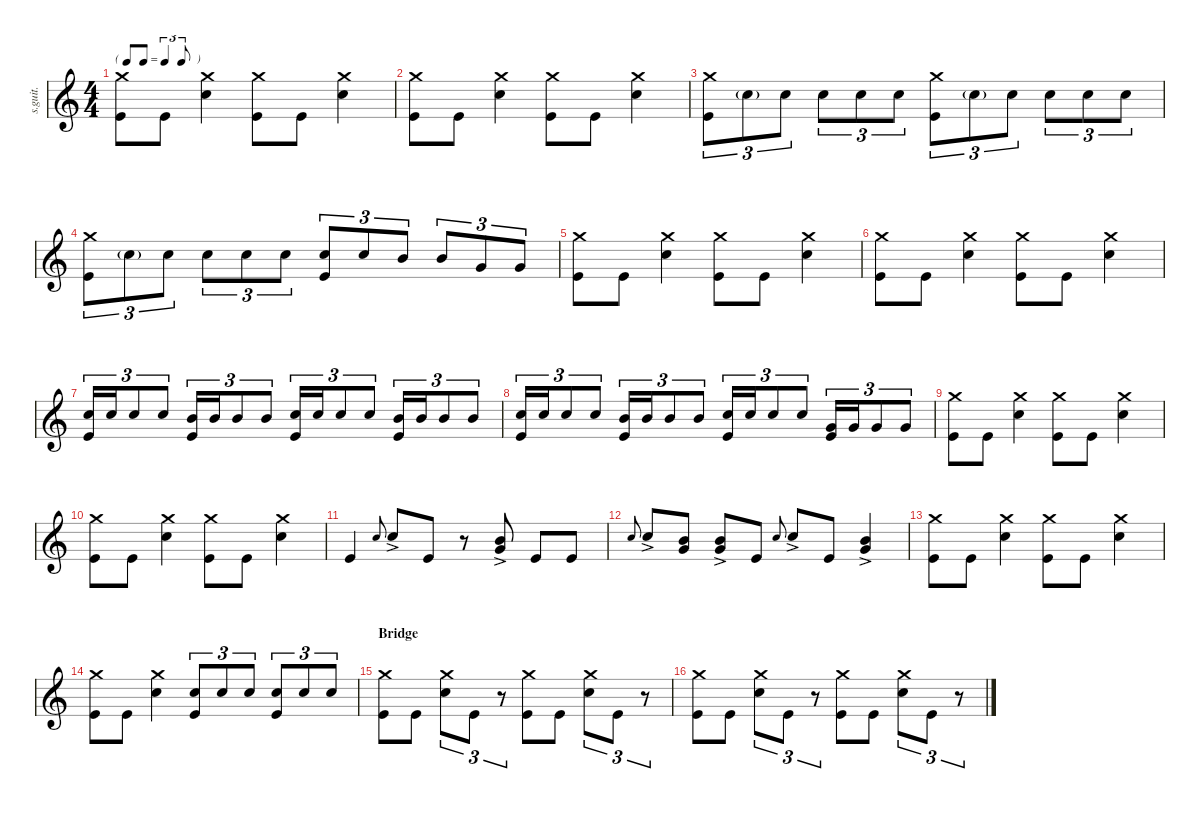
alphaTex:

\defaultSystemsLayout 4
\hideDynamics
\bracketExtendMode nobrackets
\track ("Dave Grohl" "s.guit.") {instrument percussion}
\staff {score}
\articulation defaults
\ts (4 4)
\tf triplet8th
\tempo (171 hide)
\clef g2
\ks c
("Kick (hit)" "Crash medium (hit)").8{lyrics (0 "") lyrics (1 "") lyrics (2 "") lyrics (3 "") lyrics (4 "") dy mf} "Kick (hit)".8{lyrics (0 "") lyrics (1 "") lyrics (2 "") lyrics (3 "") lyrics (4 "")} ("Crash medium (hit)" "Snare (hit) 2").4{lyrics (0 "") lyrics (1 "") lyrics (2 "") lyrics (3 "") lyrics (4 "")} ("Kick (hit)" "Crash medium (hit)").8{lyrics (0 "") lyrics (1 "") lyrics (2 "") lyrics (3 "") lyrics (4 "")} "Kick (hit)".8{lyrics (0 "") lyrics (1 "") lyrics (2 "") lyrics (3 "") lyrics (4 "")} ("Crash medium (hit)" "Snare (hit) 2").4{lyrics (0 "") lyrics (1 "") lyrics (2 "") lyrics (3 "") lyrics (4 "")} |
("Kick (hit)" "Crash medium (hit)").8{lyrics (0 "") lyrics (1 "") lyrics (2 "") lyrics (3 "") lyrics (4 "")} "Kick (hit)".8{lyrics (0 "") lyrics (1 "") lyrics (2 "") lyrics (3 "") lyrics (4 "")} ("Crash medium (hit)" "Snare (hit) 2").4{lyrics (0 "") lyrics (1 "") lyrics (2 "") lyrics (3 "") lyrics (4 "")} ("Kick (hit)" "Crash medium (hit)").8{lyrics (0 "") lyrics (1 "") lyrics (2 "") lyrics (3 "") lyrics (4 "")} "Kick (hit)".8{lyrics (0 "") lyrics (1 "") lyrics (2 "") lyrics (3 "") lyrics (4 "")} ("Crash medium (hit)" "Snare (hit) 2").4{lyrics (0 "") lyrics (1 "") lyrics (2 "") lyrics (3 "") lyrics (4 "")} |
("Kick (hit)" "Crash medium (hit)").8{tu (3 2) lyrics (0 "") lyrics (1 "") lyrics (2 "") lyrics (3 "") lyrics (4 "")} "Snare (hit) 2"{g}.8{tu (3 2) lyrics (0 "") lyrics (1 "") lyrics (2 "") lyrics (3 "") lyrics (4 "") dy fff} "Snare (hit) 2".8{tu (3 2) lyrics (0 "") lyrics (1 "") lyrics (2 "") lyrics (3 "") lyrics (4 "") dy mf} "Snare (hit) 2".8{tu (3 2) lyrics (0 "") lyrics (1 "") lyrics (2 "") lyrics (3 "") lyrics (4 "")} "Snare (hit) 2".8{tu (3 2) lyrics (0 "") lyrics (1 "") lyrics (2 "") lyrics (3 "") lyrics (4 "")} "Snare (hit) 2".8{tu (3 2) lyrics (0 "") lyrics (1 "") lyrics (2 "") lyrics (3 "") lyrics (4 "")} ("Kick (hit)" "Crash medium (hit)").8{tu (3 2) lyrics (0 "") lyrics (1 "") lyrics (2 "") lyrics (3 "") lyrics (4 "")} "Snare (hit) 2"{g}.8{tu (3 2) lyrics (0 "") lyrics (1 "") lyrics (2 "") lyrics (3 "") lyrics (4 "") dy fff} "Snare (hit) 2".8{tu (3 2) lyrics (0 "") lyrics (1 "") lyrics (2 "") lyrics (3 "") lyrics (4 "") dy mf} "Snare (hit) 2".8{tu (3 2) lyrics (0 "") lyrics (1 "") lyrics (2 "") lyrics (3 "") lyrics (4 "")} "Snare (hit) 2".8{tu (3 2) lyrics (0 "") lyrics (1 "") lyrics (2 "") lyrics (3 "") lyrics (4 "")} "Snare (hit) 2".8{tu (3 2) lyrics (0 "") lyrics (1 "") lyrics (2 "") lyrics (3 "") lyrics (4 "")} |
("Kick (hit)" "Crash medium (hit)").8{tu (3 2) lyrics (0 "") lyrics (1 "") lyrics (2 "") lyrics (3 "") lyrics (4 "")} "Snare (hit) 2"{g}.8{tu (3 2) lyrics (0 "") lyrics (1 "") lyrics (2 "") lyrics (3 "") lyrics (4 "") dy fff} "Snare (hit) 2".8{tu (3 2) lyrics (0 "") lyrics (1 "") lyrics (2 "") lyrics (3 "") lyrics (4 "") dy mf} "Snare (hit) 2".8{tu (3 2) lyrics (0 "") lyrics (1 "") lyrics (2 "") lyrics (3 "") lyrics (4 "")} "Snare (hit) 2".8{tu (3 2) lyrics (0 "") lyrics (1 "") lyrics (2 "") lyrics (3 "") lyrics (4 "")} "Snare (hit) 2".8{tu (3 2) lyrics (0 "") lyrics (1 "") lyrics (2 "") lyrics (3 "") lyrics (4 "")} ("Kick (hit)" "Snare (hit) 2").8{tu (3 2) lyrics (0 "") lyrics (1 "") lyrics (2 "") lyrics (3 "") lyrics (4 "")} "Snare (hit) 2".8{tu (3 2) lyrics (0 "") lyrics (1 "") lyrics (2 "") lyrics (3 "") lyrics (4 "")} "Mid Tom (hit)".8{tu (3 2) lyrics (0 "") lyrics (1 "") lyrics (2 "") lyrics (3 "") lyrics (4 "")} "Mid Tom (hit)".8{tu (3 2) lyrics (0 "") lyrics (1 "") lyrics (2 "") lyrics (3 "") lyrics (4 "")} "Very Low Tom (hit)".8{tu (3 2) lyrics (0 "") lyrics (1 "") lyrics (2 "") lyrics (3 "") lyrics (4 "")} "Very Low Tom (hit)".8{tu (3 2) lyrics (0 "") lyrics (1 "") lyrics (2 "") lyrics (3 "") lyrics (4 "")} |
("Kick (hit)" "Crash medium (hit)").8{lyrics (0 "") lyrics (1 "") lyrics (2 "") lyrics (3 "") lyrics (4 "")} "Kick (hit)".8{lyrics (0 "") lyrics (1 "") lyrics (2 "") lyrics (3 "") lyrics (4 "")} ("Crash medium (hit)" "Snare (hit) 2").4{lyrics (0 "") lyrics (1 "") lyrics (2 "") lyrics (3 "") lyrics (4 "")} ("Kick (hit)" "Crash medium (hit)").8{lyrics (0 "") lyrics (1 "") lyrics (2 "") lyrics (3 "") lyrics (4 "")} "Kick (hit)".8{lyrics (0 "") lyrics (1 "") lyrics (2 "") lyrics (3 "") lyrics (4 "")} ("Crash medium (hit)" "Snare (hit) 2").4{lyrics (0 "") lyrics (1 "") lyrics (2 "") lyrics (3 "") lyrics (4 "")} |
("Kick (hit)" "Crash medium (hit)").8{lyrics (0 "") lyrics (1 "") lyrics (2 "") lyrics (3 "") lyrics (4 "")} "Kick (hit)".8{lyrics (0 "") lyrics (1 "") lyrics (2 "") lyrics (3 "") lyrics (4 "")} ("Crash medium (hit)" "Snare (hit) 2").4{lyrics (0 "") lyrics (1 "") lyrics (2 "") lyrics (3 "") lyrics (4 "")} ("Kick (hit)" "Crash medium (hit)").8{lyrics (0 "") lyrics (1 "") lyrics (2 "") lyrics (3 "") lyrics (4 "")} "Kick (hit)".8{lyrics (0 "") lyrics (1 "") lyrics (2 "") lyrics (3 "") lyrics (4 "")} ("Crash medium (hit)" "Snare (hit) 2").4{lyrics (0 "") lyrics (1 "") lyrics (2 "") lyrics (3 "") lyrics (4 "")} |
("Snare (hit) 2" "Kick (hit)").16{tu (3 2) lyrics (0 "") lyrics (1 "") lyrics (2 "") lyrics (3 "") lyrics (4 "")} "Snare (hit) 2".16{tu (3 2) lyrics (0 "") lyrics (1 "") lyrics (2 "") lyrics (3 "") lyrics (4 "")} "Snare (hit) 2".8{tu (3 2) lyrics (0 "") lyrics (1 "") lyrics (2 "") lyrics (3 "") lyrics (4 "")} "Snare (hit) 2".8{tu (3 2) lyrics (0 "") lyrics (1 "") lyrics (2 "") lyrics (3 "") lyrics (4 "")} ("Mid Tom (hit)" "Kick (hit)").16{tu (3 2) lyrics (0 "") lyrics (1 "") lyrics (2 "") lyrics (3 "") lyrics (4 "")} "Mid Tom (hit)".16{tu (3 2) lyrics (0 "") lyrics (1 "") lyrics (2 "") lyrics (3 "") lyrics (4 "")} "Mid Tom (hit)".8{tu (3 2) lyrics (0 "") lyrics (1 "") lyrics (2 "") lyrics (3 "") lyrics (4 "")} "Mid Tom (hit)".8{tu (3 2) lyrics (0 "") lyrics (1 "") lyrics (2 "") lyrics (3 "") lyrics (4 "")} ("Snare (hit) 2" "Kick (hit)").16{tu (3 2) lyrics (0 "") lyrics (1 "") lyrics (2 "") lyrics (3 "") lyrics (4 "")} "Snare (hit) 2".16{tu (3 2) lyrics (0 "") lyrics (1 "") lyrics (2 "") lyrics (3 "") lyrics (4 "")} "Snare (hit) 2".8{tu (3 2) lyrics (0 "") lyrics (1 "") lyrics (2 "") lyrics (3 "") lyrics (4 "")} "Snare (hit) 2".8{tu (3 2) lyrics (0 "") lyrics (1 "") lyrics (2 "") lyrics (3 "") lyrics (4 "")} ("Mid Tom (hit)" "Kick (hit)").16{tu (3 2) lyrics (0 "") lyrics (1 "") lyrics (2 "") lyrics (3 "") lyrics (4 "")} "Mid Tom (hit)".16{tu (3 2) lyrics (0 "") lyrics (1 "") lyrics (2 "") lyrics (3 "") lyrics (4 "")} "Mid Tom (hit)".8{tu (3 2) lyrics (0 "") lyrics (1 "") lyrics (2 "") lyrics (3 "") lyrics (4 "")} "Mid Tom (hit)".8{tu (3 2) lyrics (0 "") lyrics (1 "") lyrics (2 "") lyrics (3 "") lyrics (4 "")} |
("Snare (hit) 2" "Kick (hit)").16{tu (3 2) lyrics (0 "") lyrics (1 "") lyrics (2 "") lyrics (3 "") lyrics (4 "")} "Snare (hit) 2".16{tu (3 2) lyrics (0 "") lyrics (1 "") lyrics (2 "") lyrics (3 "") lyrics (4 "")} "Snare (hit) 2".8{tu (3 2) lyrics (0 "") lyrics (1 "") lyrics (2 "") lyrics (3 "") lyrics (4 "")} "Snare (hit) 2".8{tu (3 2) lyrics (0 "") lyrics (1 "") lyrics (2 "") lyrics (3 "") lyrics (4 "")} ("Mid Tom (hit)" "Kick (hit)").16{tu (3 2) lyrics (0 "") lyrics (1 "") lyrics (2 "") lyrics (3 "") lyrics (4 "")} "Mid Tom (hit)".16{tu (3 2) lyrics (0 "") lyrics (1 "") lyrics (2 "") lyrics (3 "") lyrics (4 "")} "Mid Tom (hit)".8{tu (3 2) lyrics (0 "") lyrics (1 "") lyrics (2 "") lyrics (3 "") lyrics (4 "")} "Mid Tom (hit)".8{tu (3 2) lyrics (0 "") lyrics (1 "") lyrics (2 "") lyrics (3 "") lyrics (4 "")} ("Snare (hit) 2" "Kick (hit)").16{tu (3 2) lyrics (0 "") lyrics (1 "") lyrics (2 "") lyrics (3 "") lyrics (4 "")} "Snare (hit) 2".16{tu (3 2) lyrics (0 "") lyrics (1 "") lyrics (2 "") lyrics (3 "") lyrics (4 "")} "Snare (hit) 2".8{tu (3 2) lyrics (0 "") lyrics (1 "") lyrics (2 "") lyrics (3 "") lyrics (4 "")} "Snare (hit) 2".8{tu (3 2) lyrics (0 "") lyrics (1 "") lyrics (2 "") lyrics (3 "") lyrics (4 "")} ("Kick (hit)" "Very Low Tom (hit)").16{tu (3 2) lyrics (0 "") lyrics (1 "") lyrics (2 "") lyrics (3 "") lyrics (4 "")} "Very Low Tom (hit)".16{tu (3 2) lyrics (0 "") lyrics (1 "") lyrics (2 "") lyrics (3 "") lyrics (4 "")} "Very Low Tom (hit)".8{tu (3 2) lyrics (0 "") lyrics (1 "") lyrics (2 "") lyrics (3 "") lyrics (4 "")} "Very Low Tom (hit)".8{tu (3 2) lyrics (0 "") lyrics (1 "") lyrics (2 "") lyrics (3 "") lyrics (4 "")} |
("Kick (hit)" "Crash medium (hit)").8{lyrics (0 "") lyrics (1 "") lyrics (2 "") lyrics (3 "") lyrics (4 "")} "Kick (hit)".8{lyrics (0 "") lyrics (1 "") lyrics (2 "") lyrics (3 "") lyrics (4 "")} ("Crash medium (hit)" "Snare (hit) 2").4{lyrics (0 "") lyrics (1 "") lyrics (2 "") lyrics (3 "") lyrics (4 "")} ("Kick (hit)" "Crash medium (hit)").8{lyrics (0 "") lyrics (1 "") lyrics (2 "") lyrics (3 "") lyrics (4 "")} "Kick (hit)".8{lyrics (0 "") lyrics (1 "") lyrics (2 "") lyrics (3 "") lyrics (4 "")} ("Crash medium (hit)" "Snare (hit) 2").4{lyrics (0 "") lyrics (1 "") lyrics (2 "") lyrics (3 "") lyrics (4 "")} |
("Kick (hit)" "Crash medium (hit)").8{lyrics (0 "") lyrics (1 "") lyrics (2 "") lyrics (3 "") lyrics (4 "")} "Kick (hit)".8{lyrics (0 "") lyrics (1 "") lyrics (2 "") lyrics (3 "") lyrics (4 "")} ("Crash medium (hit)" "Snare (hit) 2").4{lyrics (0 "") lyrics (1 "") lyrics (2 "") lyrics (3 "") lyrics (4 "")} ("Kick (hit)" "Crash medium (hit)").8{lyrics (0 "") lyrics (1 "") lyrics (2 "") lyrics (3 "") lyrics (4 "")} "Kick (hit)".8{lyrics (0 "") lyrics (1 "") lyrics (2 "") lyrics (3 "") lyrics (4 "")} ("Crash medium (hit)" "Snare (hit) 2").4{lyrics (0 "") lyrics (1 "") lyrics (2 "") lyrics (3 "") lyrics (4 "")} |
"Kick (hit)".4{lyrics (0 "") lyrics (1 "") lyrics (2 "") lyrics (3 "") lyrics (4 "")} "Snare (hit) 2".8{lyrics (0 "") lyrics (1 "") lyrics (2 "") lyrics (3 "") lyrics (4 "") gr onbeat} "Snare (hit) 2"{ac}.8{lyrics (0 "") lyrics (1 "") lyrics (2 "") lyrics (3 "") lyrics (4 "") dy ppp} "Kick (hit)".8{lyrics (0 "") lyrics (1 "") lyrics (2 "") lyrics (3 "") lyrics (4 "") dy mf} r.8 ("Mid Tom (hit)"{ac} "Very Low Tom (hit)"{ac}).8{lyrics (0 "") lyrics (1 "") lyrics (2 "") lyrics (3 "") lyrics (4 "") dy ppp} "Kick (hit)".8{lyrics (0 "") lyrics (1 "") lyrics (2 "") lyrics (3 "") lyrics (4 "") dy mf} "Kick (hit)".8{lyrics (0 "") lyrics (1 "") lyrics (2 "") lyrics (3 "") lyrics (4 "")} |
"Snare (hit) 2".8{lyrics (0 "") lyrics (1 "") lyrics (2 "") lyrics (3 "") lyrics (4 "") gr onbeat} "Snare (hit) 2"{ac}.8{lyrics (0 "") lyrics (1 "") lyrics (2 "") lyrics (3 "") lyrics (4 "") dy ppp} ("Mid Tom (hit)" "Very Low Tom (hit)").8{lyrics (0 "") lyrics (1 "") lyrics (2 "") lyrics (3 "") lyrics (4 "") dy mf} ("Mid Tom (hit)"{ac} "Very Low Tom (hit)"{ac}).8{lyrics (0 "") lyrics (1 "") lyrics (2 "") lyrics (3 "") lyrics (4 "") dy ppp} "Kick (hit)".8{lyrics (0 "") lyrics (1 "") lyrics (2 "") lyrics (3 "") lyrics (4 "") dy mf} "Snare (hit) 2".8{lyrics (0 "") lyrics (1 "") lyrics (2 "") lyrics (3 "") lyrics (4 "") gr onbeat} "Snare (hit) 2"{ac}.8{lyrics (0 "") lyrics (1 "") lyrics (2 "") lyrics (3 "") lyrics (4 "") dy ppp} "Kick (hit)".8{lyrics (0 "") lyrics (1 "") lyrics (2 "") lyrics (3 "") lyrics (4 "") dy mf} ("Very Low Tom (hit)"{ac} "Mid Tom (hit)"{ac}).4{lyrics (0 "") lyrics (1 "") lyrics (2 "") lyrics (3 "") lyrics (4 "") dy ppp} |
("Kick (hit)" "Crash medium (hit)").8{lyrics (0 "") lyrics (1 "") lyrics (2 "") lyrics (3 "") lyrics (4 "") dy mf} "Kick (hit)".8{lyrics (0 "") lyrics (1 "") lyrics (2 "") lyrics (3 "") lyrics (4 "")} ("Crash medium (hit)" "Snare (hit) 2").4{lyrics (0 "") lyrics (1 "") lyrics (2 "") lyrics (3 "") lyrics (4 "")} ("Kick (hit)" "Crash medium (hit)").8{lyrics (0 "") lyrics (1 "") lyrics (2 "") lyrics (3 "") lyrics (4 "")} "Kick (hit)".8{lyrics (0 "") lyrics (1 "") lyrics (2 "") lyrics (3 "") lyrics (4 "")} ("Crash medium (hit)" "Snare (hit) 2").4{lyrics (0 "") lyrics (1 "") lyrics (2 "") lyrics (3 "") lyrics (4 "")} |
("Kick (hit)" "Crash medium (hit)").8{lyrics (0 "") lyrics (1 "") lyrics (2 "") lyrics (3 "") lyrics (4 "")} "Kick (hit)".8{lyrics (0 "") lyrics (1 "") lyrics (2 "") lyrics (3 "") lyrics (4 "")} ("Crash medium (hit)" "Snare (hit) 2").4{lyrics (0 "") lyrics (1 "") lyrics (2 "") lyrics (3 "") lyrics (4 "")} ("Kick (hit)" "Snare (hit) 2").8{tu (3 2) lyrics (0 "") lyrics (1 "") lyrics (2 "") lyrics (3 "") lyrics (4 "")} "Snare (hit) 2".8{tu (3 2) lyrics (0 "") lyrics (1 "") lyrics (2 "") lyrics (3 "") lyrics (4 "")} "Snare (hit) 2".8{tu (3 2) lyrics (0 "") lyrics (1 "") lyrics (2 "") lyrics (3 "") lyrics (4 "")} ("Kick (hit)" "Snare (hit) 2").8{tu (3 2) lyrics (0 "") lyrics (1 "") lyrics (2 "") lyrics (3 "") lyrics (4 "")} "Snare (hit) 2".8{tu (3 2) lyrics (0 "") lyrics (1 "") lyrics (2 "") lyrics (3 "") lyrics (4 "")} "Snare (hit) 2".8{tu (3 2) lyrics (0 "") lyrics (1 "") lyrics (2 "") lyrics (3 "") lyrics (4 "")} |
\section ("" "Bridge")
("Kick (hit)" "Crash medium (hit)").8{lyrics (0 "") lyrics (1 "") lyrics (2 "") lyrics (3 "") lyrics (4 "")} "Kick (hit)".8{lyrics (0 "") lyrics (1 "") lyrics (2 "") lyrics (3 "") lyrics (4 "")} ("Crash medium (hit)" "Snare (hit) 2").8{tu (3 2) lyrics (0 "") lyrics (1 "") lyrics (2 "") lyrics (3 "") lyrics (4 "")} "Kick (hit)".8{tu (3 2) lyrics (0 "") lyrics (1 "") lyrics (2 "") lyrics (3 "") lyrics (4 "")} r.8{tu (3 2)} ("Kick (hit)" "Crash medium (hit)").8{lyrics (0 "") lyrics (1 "") lyrics (2 "") lyrics (3 "") lyrics (4 "")} "Kick (hit)".8{lyrics (0 "") lyrics (1 "") lyrics (2 "") lyrics (3 "") lyrics (4 "")} ("Crash medium (hit)" "Snare (hit) 2").8{tu (3 2) lyrics (0 "") lyrics (1 "") lyrics (2 "") lyrics (3 "") lyrics (4 "")} "Kick (hit)".8{tu (3 2) lyrics (0 "") lyrics (1 "") lyrics (2 "") lyrics (3 "") lyrics (4 "")} r.8{tu (3 2)} |
("Kick (hit)" "Crash medium (hit)").8{lyrics (0 "") lyrics (1 "") lyrics (2 "") lyrics (3 "") lyrics (4 "")} "Kick (hit)".8{lyrics (0 "") lyrics (1 "") lyrics (2 "") lyrics (3 "") lyrics (4 "")} ("Crash medium (hit)" "Snare (hit) 2").8{tu (3 2) lyrics (0 "") lyrics (1 "") lyrics (2 "") lyrics (3 "") lyrics (4 "")} "Kick (hit)".8{tu (3 2) lyrics (0 "") lyrics (1 "") lyrics (2 "") lyrics (3 "") lyrics (4 "")} r.8{tu (3 2)} ("Kick (hit)" "Crash medium (hit)").8{lyrics (0 "") lyrics (1 "") lyrics (2 "") lyrics (3 "") lyrics (4 "")} "Kick (hit)".8{lyrics (0 "") lyrics (1 "") lyrics (2 "") lyrics (3 "") lyrics (4 "")} ("Crash medium (hit)" "Snare (hit) 2").8{tu (3 2) lyrics (0 "") lyrics (1 "") lyrics (2 "") lyrics (3 "") lyrics (4 "")} "Kick (hit)".8{tu (3 2) lyrics (0 "") lyrics (1 "") lyrics (2 "") lyrics (3 "") lyrics (4 "")} r.8{tu (3 2)}
